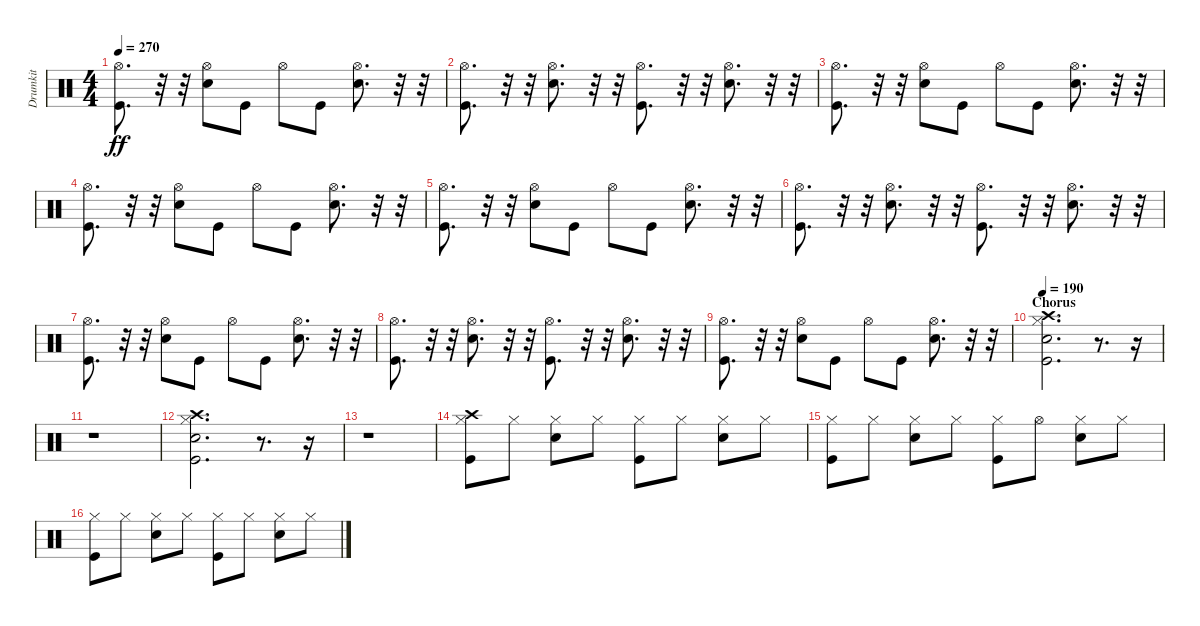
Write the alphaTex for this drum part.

\track ("Drumkit" "Drumkit") {instrument percussion}
\staff {score}
\articulation defaults
\ts (4 4)
\tempo 270
\clef neutral
\ks c
("Kick (hit)" "Hi-Hat (open)").8{d dy ff} r.32 r.32 ("Snare (hit) 2" "Hi-Hat (open)").8 "Kick (hit)".8 "Hi-Hat (open)".8 "Kick (hit)".8 ("Snare (hit) 2" "Hi-Hat (open)").8{d} r.32 r.32 |
("Kick (hit)" "Hi-Hat (open)").8{d} r.32 r.32 ("Snare (hit) 2" "Hi-Hat (open)").8{d} r.32 r.32 ("Kick (hit)" "Hi-Hat (open)").8{d} r.32 r.32 ("Snare (hit) 2" "Hi-Hat (open)").8{d} r.32 r.32 |
("Kick (hit)" "Hi-Hat (open)").8{d} r.32 r.32 ("Snare (hit) 2" "Hi-Hat (open)").8 "Kick (hit)".8 "Hi-Hat (open)".8 "Kick (hit)".8 ("Snare (hit) 2" "Hi-Hat (open)").8{d} r.32 r.32 |
("Kick (hit)" "Hi-Hat (open)").8{d} r.32 r.32 ("Snare (hit) 2" "Hi-Hat (open)").8 "Kick (hit)".8 "Hi-Hat (open)".8 "Kick (hit)".8 ("Snare (hit) 2" "Hi-Hat (open)").8{d} r.32 r.32 |
("Kick (hit)" "Hi-Hat (open)").8{d} r.32 r.32 ("Snare (hit) 2" "Hi-Hat (open)").8 "Kick (hit)".8 "Hi-Hat (open)".8 "Kick (hit)".8 ("Snare (hit) 2" "Hi-Hat (open)").8{d} r.32 r.32 |
("Kick (hit)" "Hi-Hat (open)").8{d} r.32 r.32 ("Snare (hit) 2" "Hi-Hat (open)").8{d} r.32 r.32 ("Kick (hit)" "Hi-Hat (open)").8{d} r.32 r.32 ("Snare (hit) 2" "Hi-Hat (open)").8{d} r.32 r.32 |
("Kick (hit)" "Hi-Hat (open)").8{d} r.32 r.32 ("Snare (hit) 2" "Hi-Hat (open)").8 "Kick (hit)".8 "Hi-Hat (open)".8 "Kick (hit)".8 ("Snare (hit) 2" "Hi-Hat (open)").8{d} r.32 r.32 |
("Kick (hit)" "Hi-Hat (open)").8{d} r.32 r.32 ("Snare (hit) 2" "Hi-Hat (open)").8{d} r.32 r.32 ("Kick (hit)" "Hi-Hat (open)").8{d} r.32 r.32 ("Snare (hit) 2" "Hi-Hat (open)").8{d} r.32 r.32 |
("Kick (hit)" "Hi-Hat (open)").8{d} r.32 r.32 ("Snare (hit) 2" "Hi-Hat (open)").8 "Kick (hit)".8 "Hi-Hat (open)".8 "Kick (hit)".8 ("Snare (hit) 2" "Hi-Hat (open)").8{d} r.32 r.32 |
\section ("" "Chorus")
\tempo 190
("Kick (hit)" "Snare (hit) 2" "Hi-Hat (closed)" "Crash high (hit)").2{d} r.8{d} r.16 |
r.1 |
("Kick (hit)" "Snare (hit) 2" "Hi-Hat (closed)" "Crash high (hit)").2{d} r.8{d} r.16 |
r.1 |
("Kick (hit)" "Hi-Hat (closed)" "Crash high (hit)").8 "Hi-Hat (closed)".8 ("Snare (hit) 2" "Hi-Hat (closed)").8 "Hi-Hat (closed)".8 ("Kick (hit)" "Hi-Hat (closed)").8 "Hi-Hat (closed)".8 ("Snare (hit) 2" "Hi-Hat (closed)").8 "Hi-Hat (closed)".8 |
("Kick (hit)" "Hi-Hat (closed)").8 "Hi-Hat (closed)".8 ("Snare (hit) 2" "Hi-Hat (closed)").8 "Hi-Hat (closed)".8 ("Kick (hit)" "Hi-Hat (closed)").8 "Hi-Hat (open)".8 ("Snare (hit) 2" "Hi-Hat (closed)").8 "Hi-Hat (closed)".8 |
("Kick (hit)" "Hi-Hat (closed)").8 "Hi-Hat (closed)".8 ("Snare (hit) 2" "Hi-Hat (closed)").8 "Hi-Hat (closed)".8 ("Kick (hit)" "Hi-Hat (closed)").8 "Hi-Hat (closed)".8 ("Snare (hit) 2" "Hi-Hat (closed)").8 "Hi-Hat (closed)".8
